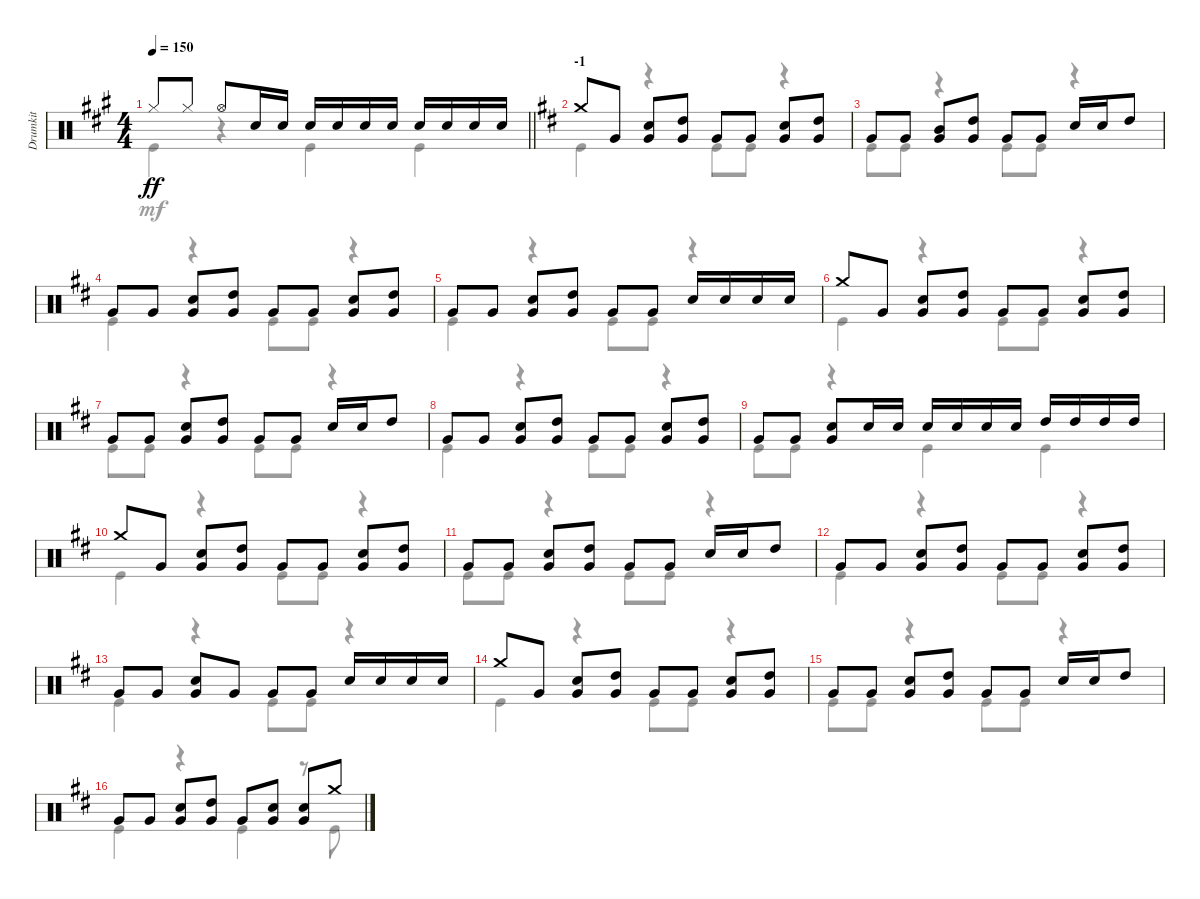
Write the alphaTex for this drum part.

\track ("Drumkit" "Drumkit") {instrument percussion}
\staff {score}
\articulation defaults
\voice
\ts (4 4)
\tempo 150
\clef neutral
\barLineRight lightlight
\ks a "Hi-Hat (closed)".8{dy ff} "Hi-Hat (closed)".8 "Hi-Hat (open)".8 "Snare (hit) 2".16 "Snare (hit) 2".16 "Snare (hit) 2".16 "Snare (hit) 2".16 "Snare (hit) 2".16 "Snare (hit) 2".16 "Snare (hit) 2".16 "Snare (hit) 2".16 "Snare (hit) 2".16 "Snare (hit) 2".16
|
\section ("" "-1")
\ks d "Crash medium (hit)".8 "Very Low Tom (hit)".8
("Very Low Tom (hit)" "Snare (hit) 2").8 ("Very Low Tom (hit)" "High Tom (hit)").8 "Very Low Tom (hit)".8 "Very Low Tom (hit)".8 ("Very Low Tom (hit)" "Snare (hit) 2").8 ("Very Low Tom (hit)" "High Tom (hit)").8 |
"Very Low Tom (hit)".8 "Very Low Tom (hit)".8 ("Very Low Tom (hit)" "Mid Tom (hit)").8 ("Very Low Tom (hit)" "High Tom (hit)").8 "Very Low Tom (hit)".8 "Very Low Tom (hit)".8 "Snare (hit) 2".16 "Snare (hit) 2".16 "High Tom (hit)".8 |
"Very Low Tom (hit)".8 "Very Low Tom (hit)".8 ("Very Low Tom (hit)" "Snare (hit) 2").8 ("Very Low Tom (hit)" "High Tom (hit)").8 "Very Low Tom (hit)".8 "Very Low Tom (hit)".8 ("Very Low Tom (hit)" "Snare (hit) 2").8 ("Very Low Tom (hit)" "High Tom (hit)").8 |
"Very Low Tom (hit)".8 "Very Low Tom (hit)".8 ("Very Low Tom (hit)" "Snare (hit) 2").8 ("Very Low Tom (hit)" "High Tom (hit)").8 "Very Low Tom (hit)".8 "Very Low Tom (hit)".8 "Snare (hit) 2".16 "Snare (hit) 2".16 "Snare (hit) 2".16 "Snare (hit) 2".16 |
"Crash medium (hit)".8 "Very Low Tom (hit)".8 ("Very Low Tom (hit)" "Snare (hit) 2").8 ("Very Low Tom (hit)" "High Tom (hit)").8 "Very Low Tom (hit)".8 "Very Low Tom (hit)".8 ("Very Low Tom (hit)" "Snare (hit) 2").8 ("Very Low Tom (hit)" "High Tom (hit)").8 |
"Very Low Tom (hit)".8 "Very Low Tom (hit)".8 ("Very Low Tom (hit)" "Snare (hit) 2").8 ("Very Low Tom (hit)" "High Tom (hit)").8 "Very Low Tom (hit)".8 "Very Low Tom (hit)".8 "Snare (hit) 2".16 "Snare (hit) 2".16 "High Tom (hit)".8 |
"Very Low Tom (hit)".8 "Very Low Tom (hit)".8 ("Very Low Tom (hit)" "Snare (hit) 2").8 ("Very Low Tom (hit)" "High Tom (hit)").8 "Very Low Tom (hit)".8 "Very Low Tom (hit)".8 ("Very Low Tom (hit)" "Snare (hit) 2").8 ("Very Low Tom (hit)" "High Tom (hit)").8 |
"Very Low Tom (hit)".8 "Very Low Tom (hit)".8 ("Very Low Tom (hit)" "Snare (hit) 2").8 "Snare (hit) 2".16 "Snare (hit) 2".16 "Snare (hit) 2".16 "Snare (hit) 2".16 "Snare (hit) 2".16 "Snare (hit) 2".16 "High Tom (hit)".16 "High Tom (hit)".16 "High Tom (hit)".16 "High Tom (hit)".16 |
"Crash medium (hit)".8 "Very Low Tom (hit)".8 ("Very Low Tom (hit)" "Snare (hit) 2").8 ("Very Low Tom (hit)" "High Tom (hit)").8 "Very Low Tom (hit)".8 "Very Low Tom (hit)".8 ("Very Low Tom (hit)" "Snare (hit) 2").8 ("Very Low Tom (hit)" "High Tom (hit)").8 |
"Very Low Tom (hit)".8 "Very Low Tom (hit)".8 ("Very Low Tom (hit)" "Snare (hit) 2").8 ("Very Low Tom (hit)" "High Tom (hit)").8 "Very Low Tom (hit)".8 "Very Low Tom (hit)".8 "Snare (hit) 2".16 "Snare (hit) 2".16 "High Tom (hit)".8 |
"Very Low Tom (hit)".8 "Very Low Tom (hit)".8 ("Very Low Tom (hit)" "Snare (hit) 2").8 ("Very Low Tom (hit)" "High Tom (hit)").8 "Very Low Tom (hit)".8 "Very Low Tom (hit)".8 ("Very Low Tom (hit)" "Snare (hit) 2").8 ("Very Low Tom (hit)" "High Tom (hit)").8 |
"Very Low Tom (hit)".8 "Very Low Tom (hit)".8 ("Very Low Tom (hit)" "Snare (hit) 2").8 "Very Low Tom (hit)".8 "Very Low Tom (hit)".8 "Very Low Tom (hit)".8 "Snare (hit) 2".16 "Snare (hit) 2".16 "Snare (hit) 2".16 "Snare (hit) 2".16 |
"Crash medium (hit)".8 "Very Low Tom (hit)".8 ("Very Low Tom (hit)" "Snare (hit) 2").8 ("Very Low Tom (hit)" "High Tom (hit)").8 "Very Low Tom (hit)".8 "Very Low Tom (hit)".8 ("Very Low Tom (hit)" "Snare (hit) 2").8 ("Very Low Tom (hit)" "High Tom (hit)").8 |
"Very Low Tom (hit)".8 "Very Low Tom (hit)".8 ("Very Low Tom (hit)" "Snare (hit) 2").8 ("Very Low Tom (hit)" "High Tom (hit)").8 "Very Low Tom (hit)".8 "Very Low Tom (hit)".8 "Snare (hit) 2".16 "Snare (hit) 2".16 "High Tom (hit)".8 |
"Very Low Tom (hit)".8 "Very Low Tom (hit)".8 ("Very Low Tom (hit)" "Snare (hit) 2").8 ("Very Low Tom (hit)" "High Tom (hit)").8 "Very Low Tom (hit)".8 ("Very Low Tom (hit)" "Snare (hit) 2").8 ("Very Low Tom (hit)" "Snare (hit) 2").8 "Crash medium (hit)".8
\voice
\clef neutral
\ottava regular
\simile none
\barLineRight lightlight
\ks a "Kick (hit)".4{dy mf}
r.4 "Kick (hit)".4 "Kick (hit)".4 |
\ks d "Kick (hit)".4
r.4 "Kick (hit)".8 "Kick (hit)".8 r.4 |
"Kick (hit)".8 "Kick (hit)".8 r.4 "Kick (hit)".8 "Kick (hit)".8 r.4 |
"Kick (hit)".4 r.4 "Kick (hit)".8 "Kick (hit)".8 r.4 |
"Kick (hit)".4 r.4 "Kick (hit)".8 "Kick (hit)".8 r.4 |
"Kick (hit)".4 r.4 "Kick (hit)".8 "Kick (hit)".8 r.4 |
"Kick (hit)".8 "Kick (hit)".8 r.4 "Kick (hit)".8 "Kick (hit)".8 r.4 |
"Kick (hit)".4 r.4 "Kick (hit)".8 "Kick (hit)".8 r.4 |
"Kick (hit)".8 "Kick (hit)".8 r.4 "Kick (hit)".4 "Kick (hit)".4 |
"Kick (hit)".4 r.4 "Kick (hit)".8 "Kick (hit)".8 r.4 |
"Kick (hit)".8 "Kick (hit)".8 r.4 "Kick (hit)".8 "Kick (hit)".8 r.4 |
"Kick (hit)".4 r.4 "Kick (hit)".8 "Kick (hit)".8 r.4 |
"Kick (hit)".4 r.4 "Kick (hit)".8 "Kick (hit)".8 r.4 |
"Kick (hit)".4 r.4 "Kick (hit)".8 "Kick (hit)".8 r.4 |
"Kick (hit)".8 "Kick (hit)".8 r.4 "Kick (hit)".8 "Kick (hit)".8 r.4 |
"Kick (hit)".4 r.4 "Kick (hit)".4 r.8 "Kick (hit)".8
